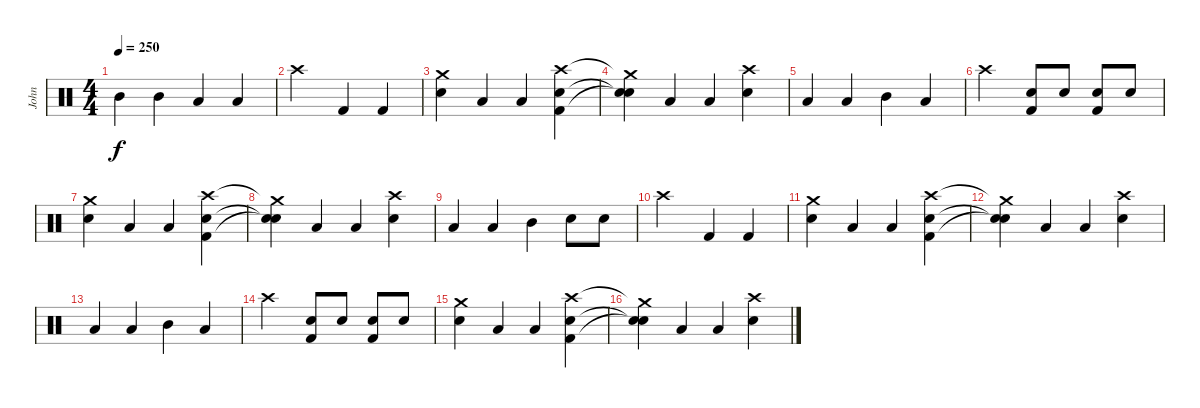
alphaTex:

\track ("John" "John") {instrument percussion}
\staff {score}
\articulation defaults
\ts (4 4)
\tempo 250
\clef neutral
\ks c "Mid Tom (hit)".4{dy f} "Mid Tom (hit)".4 "Low Tom (hit)".4 "Low Tom (hit)".4
|
"Crash high (hit)".2 "Kick (hit) 2".4 "Kick (hit) 2".4 |
("Crash medium (hit)" "Electric Snare (hit)").4 "Low Tom (hit)".4 "Low Tom (hit)".4 ("Crash high (hit)" "Electric Snare (hit)" "Kick (hit) 2").4 |
("Crash medium (hit)"{t} "Electric Snare (hit)"{t} "Snare (hit)"{t}).4 "Low Tom (hit)".4 "Low Tom (hit)".4 ("Crash high (hit)" "Electric Snare (hit)").4 |
"Low Tom (hit)".4 "Low Tom (hit)".4 "Mid Tom (hit)".4 "Low Tom (hit)".4 |
"Crash high (hit)".2 ("Electric Snare (hit)" "Kick (hit) 2").8 "Electric Snare (hit)".8 ("Electric Snare (hit)" "Kick (hit) 2").8 "Electric Snare (hit)".8 |
("Crash medium (hit)" "Electric Snare (hit)").4 "Low Tom (hit)".4 "Low Tom (hit)".4 ("Crash high (hit)" "Electric Snare (hit)" "Kick (hit) 2").4 |
("Crash medium (hit)"{t} "Electric Snare (hit)"{t} "Snare (hit)"{t}).4 "Low Tom (hit)".4 "Low Tom (hit)".4 ("Crash high (hit)" "Electric Snare (hit)").4 |
"Low Tom (hit)".4 "Low Tom (hit)".4 "Mid Tom (hit)".4 "Electric Snare (hit)".8 "Electric Snare (hit)".8 |
"Crash high (hit)".2 "Kick (hit) 2".4 "Kick (hit) 2".4 |
("Crash medium (hit)" "Electric Snare (hit)").4 "Low Tom (hit)".4 "Low Tom (hit)".4 ("Crash high (hit)" "Electric Snare (hit)" "Kick (hit) 2").4 |
("Crash medium (hit)"{t} "Electric Snare (hit)"{t} "Snare (hit)"{t}).4 "Low Tom (hit)".4 "Low Tom (hit)".4 ("Crash high (hit)" "Electric Snare (hit)").4 |
"Low Tom (hit)".4 "Low Tom (hit)".4 "Mid Tom (hit)".4 "Low Tom (hit)".4 |
"Crash high (hit)".2 ("Electric Snare (hit)" "Kick (hit) 2").8 "Electric Snare (hit)".8 ("Electric Snare (hit)" "Kick (hit) 2").8 "Electric Snare (hit)".8 |
("Crash medium (hit)" "Electric Snare (hit)").4 "Low Tom (hit)".4 "Low Tom (hit)".4 ("Crash high (hit)" "Electric Snare (hit)" "Kick (hit) 2").4 |
("Crash medium (hit)"{t} "Electric Snare (hit)"{t} "Snare (hit)"{t}).4 "Low Tom (hit)".4 "Low Tom (hit)".4 ("Crash high (hit)" "Electric Snare (hit)").4
